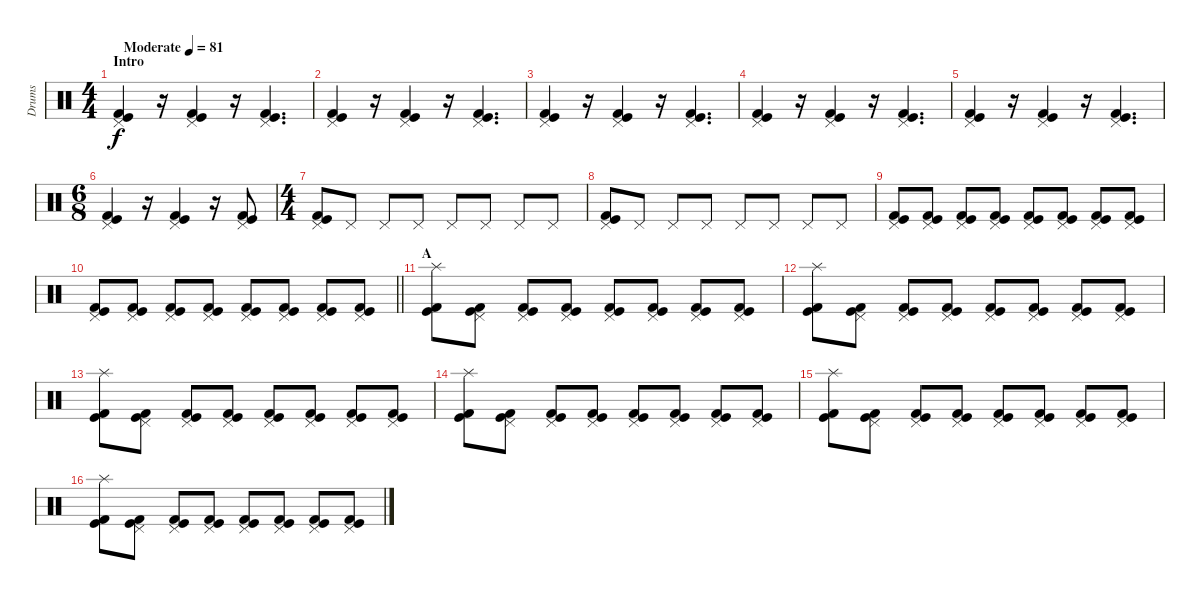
\track ("Drums" "Drums") {instrument percussion}
\staff {score}
\articulation defaults
\ts (4 4)
\section ("" "Intro")
\tempo (81 "Moderate")
\clef neutral
\ks c
("Pedal Hi-Hat (hit)" "Kick (hit)" "Kick (hit) 2").4{dy f} r.16 ("Pedal Hi-Hat (hit)" "Kick (hit)" "Kick (hit) 2").4 r.16 ("Pedal Hi-Hat (hit)" "Kick (hit)" "Kick (hit) 2").4{d} |
("Pedal Hi-Hat (hit)" "Kick (hit)" "Kick (hit) 2").4 r.16 ("Pedal Hi-Hat (hit)" "Kick (hit)" "Kick (hit) 2").4 r.16 ("Pedal Hi-Hat (hit)" "Kick (hit)" "Kick (hit) 2").4{d} |
("Pedal Hi-Hat (hit)" "Kick (hit)" "Kick (hit) 2").4 r.16 ("Pedal Hi-Hat (hit)" "Kick (hit)" "Kick (hit) 2").4 r.16 ("Pedal Hi-Hat (hit)" "Kick (hit)" "Kick (hit) 2").4{d} |
("Pedal Hi-Hat (hit)" "Kick (hit)" "Kick (hit) 2").4 r.16 ("Pedal Hi-Hat (hit)" "Kick (hit)" "Kick (hit) 2").4 r.16 ("Pedal Hi-Hat (hit)" "Kick (hit)" "Kick (hit) 2").4{d} |
("Pedal Hi-Hat (hit)" "Kick (hit)" "Kick (hit) 2").4 r.16 ("Pedal Hi-Hat (hit)" "Kick (hit)" "Kick (hit) 2").4 r.16 ("Pedal Hi-Hat (hit)" "Kick (hit)" "Kick (hit) 2").4{d} |
\ts (6 8)
("Pedal Hi-Hat (hit)" "Kick (hit)" "Kick (hit) 2").4 r.16 ("Pedal Hi-Hat (hit)" "Kick (hit)" "Kick (hit) 2").4 r.16 ("Pedal Hi-Hat (hit)" "Kick (hit)" "Kick (hit) 2").8 |
\ts (4 4)
("Pedal Hi-Hat (hit)" "Kick (hit)" "Kick (hit) 2").8 "Pedal Hi-Hat (hit)".8 "Pedal Hi-Hat (hit)".8 "Pedal Hi-Hat (hit)".8 "Pedal Hi-Hat (hit)".8 "Pedal Hi-Hat (hit)".8 "Pedal Hi-Hat (hit)".8 "Pedal Hi-Hat (hit)".8 |
("Pedal Hi-Hat (hit)" "Kick (hit)" "Kick (hit) 2").8 "Pedal Hi-Hat (hit)".8 "Pedal Hi-Hat (hit)".8 "Pedal Hi-Hat (hit)".8 "Pedal Hi-Hat (hit)".8 "Pedal Hi-Hat (hit)".8 "Pedal Hi-Hat (hit)".8 "Pedal Hi-Hat (hit)".8 |
("Pedal Hi-Hat (hit)" "Kick (hit)" "Kick (hit) 2").8 ("Pedal Hi-Hat (hit)" "Kick (hit)" "Kick (hit) 2").8 ("Pedal Hi-Hat (hit)" "Kick (hit)" "Kick (hit) 2").8 ("Pedal Hi-Hat (hit)" "Kick (hit)" "Kick (hit) 2").8 ("Pedal Hi-Hat (hit)" "Kick (hit)" "Kick (hit) 2").8 ("Pedal Hi-Hat (hit)" "Kick (hit)" "Kick (hit) 2").8 ("Pedal Hi-Hat (hit)" "Kick (hit)" "Kick (hit) 2").8 ("Pedal Hi-Hat (hit)" "Kick (hit)" "Kick (hit) 2").8 |
\barLineRight lightlight
("Pedal Hi-Hat (hit)" "Kick (hit)" "Kick (hit) 2").8 ("Pedal Hi-Hat (hit)" "Kick (hit)" "Kick (hit) 2").8 ("Pedal Hi-Hat (hit)" "Kick (hit)" "Kick (hit) 2").8 ("Pedal Hi-Hat (hit)" "Kick (hit)" "Kick (hit) 2").8 ("Pedal Hi-Hat (hit)" "Kick (hit)" "Kick (hit) 2").8 ("Pedal Hi-Hat (hit)" "Kick (hit)" "Kick (hit) 2").8 ("Pedal Hi-Hat (hit)" "Kick (hit)" "Kick (hit) 2").8 ("Pedal Hi-Hat (hit)" "Kick (hit)" "Kick (hit) 2").8 |
\section ("" "A")
("Splash (hit)" "Kick (hit)" "Kick (hit) 2").8 ("Pedal Hi-Hat (hit)" "Kick (hit)" "Kick (hit) 2").8 ("Pedal Hi-Hat (hit)" "Kick (hit)" "Kick (hit) 2").8 ("Pedal Hi-Hat (hit)" "Kick (hit)" "Kick (hit) 2").8 ("Pedal Hi-Hat (hit)" "Kick (hit)" "Kick (hit) 2").8 ("Pedal Hi-Hat (hit)" "Kick (hit)" "Kick (hit) 2").8 ("Pedal Hi-Hat (hit)" "Kick (hit)" "Kick (hit) 2").8 ("Pedal Hi-Hat (hit)" "Kick (hit)" "Kick (hit) 2").8 |
("Splash (hit)" "Kick (hit)" "Kick (hit) 2").8 ("Pedal Hi-Hat (hit)" "Kick (hit)" "Kick (hit) 2").8 ("Pedal Hi-Hat (hit)" "Kick (hit)" "Kick (hit) 2").8 ("Pedal Hi-Hat (hit)" "Kick (hit)" "Kick (hit) 2").8 ("Pedal Hi-Hat (hit)" "Kick (hit)" "Kick (hit) 2").8 ("Pedal Hi-Hat (hit)" "Kick (hit)" "Kick (hit) 2").8 ("Pedal Hi-Hat (hit)" "Kick (hit)" "Kick (hit) 2").8 ("Pedal Hi-Hat (hit)" "Kick (hit)" "Kick (hit) 2").8 |
("Splash (hit)" "Kick (hit)" "Kick (hit) 2").8 ("Pedal Hi-Hat (hit)" "Kick (hit)" "Kick (hit) 2").8 ("Pedal Hi-Hat (hit)" "Kick (hit)" "Kick (hit) 2").8 ("Pedal Hi-Hat (hit)" "Kick (hit)" "Kick (hit) 2").8 ("Pedal Hi-Hat (hit)" "Kick (hit)" "Kick (hit) 2").8 ("Pedal Hi-Hat (hit)" "Kick (hit)" "Kick (hit) 2").8 ("Pedal Hi-Hat (hit)" "Kick (hit)" "Kick (hit) 2").8 ("Pedal Hi-Hat (hit)" "Kick (hit)" "Kick (hit) 2").8 |
("Splash (hit)" "Kick (hit)" "Kick (hit) 2").8 ("Pedal Hi-Hat (hit)" "Kick (hit)" "Kick (hit) 2").8 ("Pedal Hi-Hat (hit)" "Kick (hit)" "Kick (hit) 2").8 ("Pedal Hi-Hat (hit)" "Kick (hit)" "Kick (hit) 2").8 ("Pedal Hi-Hat (hit)" "Kick (hit)" "Kick (hit) 2").8 ("Pedal Hi-Hat (hit)" "Kick (hit)" "Kick (hit) 2").8 ("Pedal Hi-Hat (hit)" "Kick (hit)" "Kick (hit) 2").8 ("Pedal Hi-Hat (hit)" "Kick (hit)" "Kick (hit) 2").8 |
("Splash (hit)" "Kick (hit)" "Kick (hit) 2").8 ("Pedal Hi-Hat (hit)" "Kick (hit)" "Kick (hit) 2").8 ("Pedal Hi-Hat (hit)" "Kick (hit)" "Kick (hit) 2").8 ("Pedal Hi-Hat (hit)" "Kick (hit)" "Kick (hit) 2").8 ("Pedal Hi-Hat (hit)" "Kick (hit)" "Kick (hit) 2").8 ("Pedal Hi-Hat (hit)" "Kick (hit)" "Kick (hit) 2").8 ("Pedal Hi-Hat (hit)" "Kick (hit)" "Kick (hit) 2").8 ("Pedal Hi-Hat (hit)" "Kick (hit)" "Kick (hit) 2").8 |
("Splash (hit)" "Kick (hit)" "Kick (hit) 2").8 ("Pedal Hi-Hat (hit)" "Kick (hit)" "Kick (hit) 2").8 ("Pedal Hi-Hat (hit)" "Kick (hit)" "Kick (hit) 2").8 ("Pedal Hi-Hat (hit)" "Kick (hit)" "Kick (hit) 2").8 ("Pedal Hi-Hat (hit)" "Kick (hit)" "Kick (hit) 2").8 ("Pedal Hi-Hat (hit)" "Kick (hit)" "Kick (hit) 2").8 ("Pedal Hi-Hat (hit)" "Kick (hit)" "Kick (hit) 2").8 ("Pedal Hi-Hat (hit)" "Kick (hit)" "Kick (hit) 2").8
